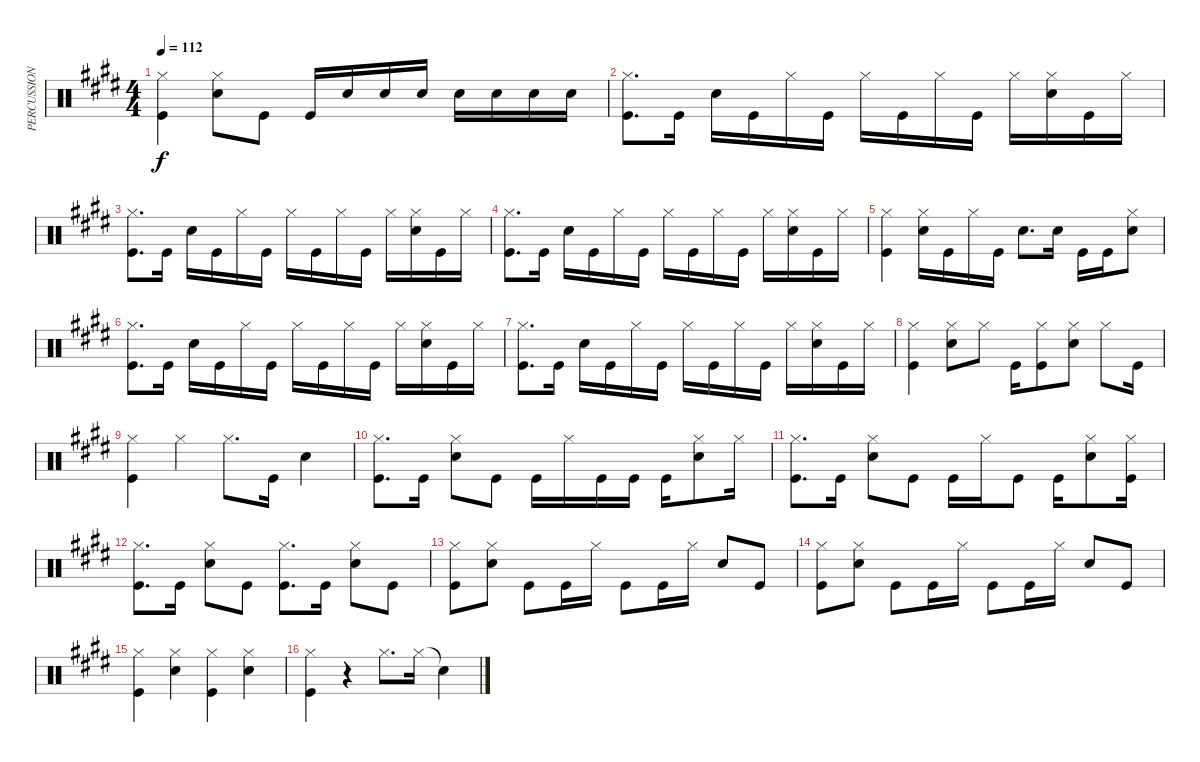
\track ("PERCUSSION" "PERCUSSION") {instrument percussion}
\staff {score}
\articulation defaults
\ts (4 4)
\tempo 112
\clef neutral
\ks c#minor
("Hi-Hat (closed)" "Kick (hit)").4{dy f} ("Hi-Hat (closed)" "Snare (hit) 2").8 "Kick (hit)".8 "Kick (hit)".16 "Snare (hit) 2".16 "Snare (hit) 2".16 "Snare (hit) 2".16 "Snare (hit) 2".16 "Snare (hit) 2".16 "Snare (hit) 2".16 "Snare (hit) 2".16 |
("Hi-Hat (closed)" "Kick (hit)").8{d} "Kick (hit)".16 "Snare (hit) 2".16 "Kick (hit)".16 "Hi-Hat (closed)".16 "Kick (hit)".16 "Hi-Hat (closed)".16 "Kick (hit)".16 "Hi-Hat (closed)".16 "Kick (hit)".16 "Hi-Hat (closed)".16 ("Hi-Hat (closed)" "Snare (hit) 2").16 "Kick (hit)".16 "Hi-Hat (closed)".16 |
("Hi-Hat (closed)" "Kick (hit)").8{d} "Kick (hit)".16 "Snare (hit) 2".16 "Kick (hit)".16 "Hi-Hat (closed)".16 "Kick (hit)".16 "Hi-Hat (closed)".16 "Kick (hit)".16 "Hi-Hat (closed)".16 "Kick (hit)".16 "Hi-Hat (closed)".16 ("Hi-Hat (closed)" "Snare (hit) 2").16 "Kick (hit)".16 "Hi-Hat (closed)".16 |
("Hi-Hat (closed)" "Kick (hit)").8{d} "Kick (hit)".16 "Snare (hit) 2".16 "Kick (hit)".16 "Hi-Hat (closed)".16 "Kick (hit)".16 "Hi-Hat (closed)".16 "Kick (hit)".16 "Hi-Hat (closed)".16 "Kick (hit)".16 "Hi-Hat (closed)".16 ("Hi-Hat (closed)" "Snare (hit) 2").16 "Kick (hit)".16 "Hi-Hat (closed)".16 |
("Hi-Hat (closed)" "Kick (hit)").4 ("Hi-Hat (closed)" "Snare (hit) 2").16 "Kick (hit)".16 "Hi-Hat (closed)".16 "Kick (hit)".16 "Snare (hit) 2".8{d} "Snare (hit) 2".16 "Kick (hit)".16 "Kick (hit)".16 ("Hi-Hat (closed)" "Snare (hit) 2").8 |
("Hi-Hat (closed)" "Kick (hit)").8{d} "Kick (hit)".16 "Snare (hit) 2".16 "Kick (hit)".16 "Hi-Hat (closed)".16 "Kick (hit)".16 "Hi-Hat (closed)".16 "Kick (hit)".16 "Hi-Hat (closed)".16 "Kick (hit)".16 "Hi-Hat (closed)".16 ("Hi-Hat (closed)" "Snare (hit) 2").16 "Kick (hit)".16 "Hi-Hat (closed)".16 |
("Hi-Hat (closed)" "Kick (hit)").8{d} "Kick (hit)".16 "Snare (hit) 2".16 "Kick (hit)".16 "Hi-Hat (closed)".16 "Kick (hit)".16 "Hi-Hat (closed)".16 "Kick (hit)".16 "Hi-Hat (closed)".16 "Kick (hit)".16 "Hi-Hat (closed)".16 ("Hi-Hat (closed)" "Snare (hit) 2").16 "Kick (hit)".16 "Hi-Hat (closed)".16 |
("Hi-Hat (closed)" "Kick (hit)").4 ("Hi-Hat (closed)" "Snare (hit) 2").8 "Hi-Hat (closed)".8 "Kick (hit)".16 ("Hi-Hat (closed)" "Kick (hit)").8 ("Hi-Hat (closed)" "Snare (hit) 2").8 "Hi-Hat (closed)".8 "Kick (hit)".16 |
("Hi-Hat (closed)" "Kick (hit)").4 "Hi-Hat (closed)".4 "Hi-Hat (closed)".8{d} "Kick (hit)".16 "Snare (hit) 2".4 |
("Hi-Hat (closed)" "Kick (hit)").8{d} "Kick (hit)".16 ("Hi-Hat (closed)" "Snare (hit) 2").8 "Kick (hit)".8 "Kick (hit)".16 "Hi-Hat (closed)".16 "Kick (hit)".16 "Kick (hit)".16 "Kick (hit)".16 ("Hi-Hat (closed)" "Snare (hit) 2").8 "Hi-Hat (closed)".16 |
("Hi-Hat (closed)" "Kick (hit)").8{d} "Kick (hit)".16 ("Hi-Hat (closed)" "Snare (hit) 2").8 "Kick (hit)".8 "Kick (hit)".16 "Hi-Hat (closed)".16 "Kick (hit)".8 "Kick (hit)".16 ("Hi-Hat (closed)" "Snare (hit) 2").8 ("Hi-Hat (closed)" "Kick (hit)").16 |
("Hi-Hat (closed)" "Kick (hit)").8{d} "Kick (hit)".16 ("Hi-Hat (closed)" "Snare (hit) 2").8 "Kick (hit)".8 ("Hi-Hat (closed)" "Kick (hit)").8{d} "Kick (hit)".16 ("Hi-Hat (closed)" "Snare (hit) 2").8 "Kick (hit)".8 |
("Hi-Hat (closed)" "Kick (hit)").8 ("Hi-Hat (closed)" "Snare (hit) 2").8 "Kick (hit)".8 "Kick (hit)".16 "Hi-Hat (closed)".16 "Kick (hit)".8 "Kick (hit)".16 "Hi-Hat (closed)".16 "Snare (hit) 2".8 "Kick (hit)".8 |
("Hi-Hat (closed)" "Kick (hit)").8 ("Hi-Hat (closed)" "Snare (hit) 2").8 "Kick (hit)".8 "Kick (hit)".16 "Hi-Hat (closed)".16 "Kick (hit)".8 "Kick (hit)".16 "Hi-Hat (closed)".16 "Snare (hit) 2".8 "Kick (hit)".8 |
("Hi-Hat (closed)" "Kick (hit)").4 ("Hi-Hat (closed)" "Snare (hit) 2").4 ("Hi-Hat (closed)" "Kick (hit)").4 ("Hi-Hat (closed)" "Snare (hit) 2").4 |
("Hi-Hat (closed)" "Kick (hit)").4 r.4 "Hi-Hat (closed)".8{d} "Hi-Hat (closed)".16 "Snare (hit)"{t}.4
